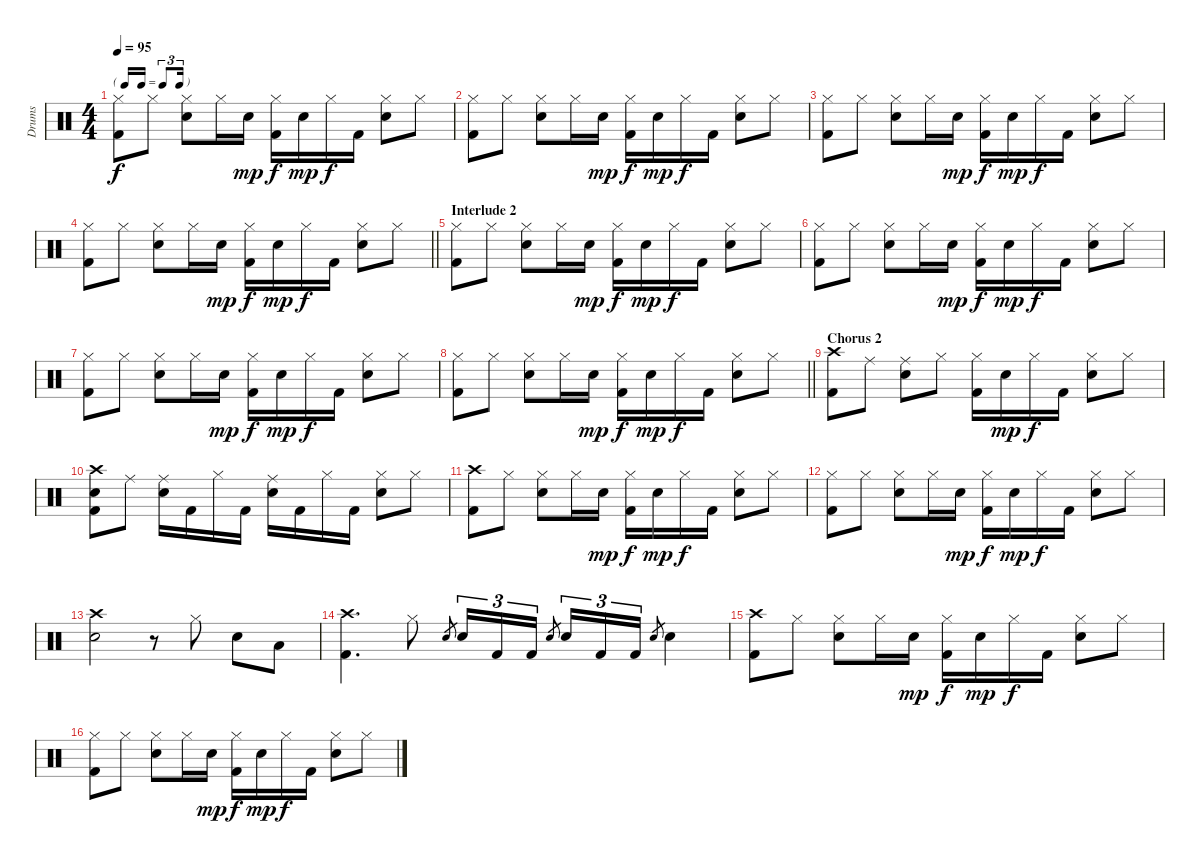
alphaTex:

\track ("Drums" "Drums") {instrument percussion}
\staff {score}
\articulation defaults
\ts (4 4)
\tf triplet16th
\tempo 95
\clef neutral
\ks c
("Hi-Hat (closed)" "Kick (hit) 2").8{dy f} "Hi-Hat (closed)".8 ("Hi-Hat (closed)" "Snare (hit) 2").8 "Hi-Hat (closed)".16 "Snare (hit) 2".16{dy mp} ("Hi-Hat (closed)" "Kick (hit) 2").16{dy f} "Snare (hit) 2".16{dy mp} "Hi-Hat (closed)".16{dy f} "Kick (hit) 2".16 ("Hi-Hat (closed)" "Snare (hit) 2").8 "Hi-Hat (closed)".8 |
("Hi-Hat (closed)" "Kick (hit) 2").8 "Hi-Hat (closed)".8 ("Hi-Hat (closed)" "Snare (hit) 2").8 "Hi-Hat (closed)".16 "Snare (hit) 2".16{dy mp} ("Hi-Hat (closed)" "Kick (hit) 2").16{dy f} "Snare (hit) 2".16{dy mp} "Hi-Hat (closed)".16{dy f} "Kick (hit) 2".16 ("Hi-Hat (closed)" "Snare (hit) 2").8 "Hi-Hat (closed)".8 |
("Hi-Hat (closed)" "Kick (hit) 2").8 "Hi-Hat (closed)".8 ("Hi-Hat (closed)" "Snare (hit) 2").8 "Hi-Hat (closed)".16 "Snare (hit) 2".16{dy mp} ("Hi-Hat (closed)" "Kick (hit) 2").16{dy f} "Snare (hit) 2".16{dy mp} "Hi-Hat (closed)".16{dy f} "Kick (hit) 2".16 ("Hi-Hat (closed)" "Snare (hit) 2").8 "Hi-Hat (closed)".8 |
\barLineRight lightlight
("Hi-Hat (closed)" "Kick (hit) 2").8 "Hi-Hat (closed)".8 ("Hi-Hat (closed)" "Snare (hit) 2").8 "Hi-Hat (closed)".16 "Snare (hit) 2".16{dy mp} ("Hi-Hat (closed)" "Kick (hit) 2").16{dy f} "Snare (hit) 2".16{dy mp} "Hi-Hat (closed)".16{dy f} "Kick (hit) 2".16 ("Hi-Hat (closed)" "Snare (hit) 2").8 "Hi-Hat (closed)".8 |
\section ("" "Interlude 2")
("Hi-Hat (closed)" "Kick (hit) 2").8 "Hi-Hat (closed)".8 ("Hi-Hat (closed)" "Snare (hit) 2").8 "Hi-Hat (closed)".16 "Snare (hit) 2".16{dy mp} ("Hi-Hat (closed)" "Kick (hit) 2").16{dy f} "Snare (hit) 2".16{dy mp} "Hi-Hat (closed)".16{dy f} "Kick (hit) 2".16 ("Hi-Hat (closed)" "Snare (hit) 2").8 "Hi-Hat (closed)".8 |
("Hi-Hat (closed)" "Kick (hit) 2").8 "Hi-Hat (closed)".8 ("Hi-Hat (closed)" "Snare (hit) 2").8 "Hi-Hat (closed)".16 "Snare (hit) 2".16{dy mp} ("Hi-Hat (closed)" "Kick (hit) 2").16{dy f} "Snare (hit) 2".16{dy mp} "Hi-Hat (closed)".16{dy f} "Kick (hit) 2".16 ("Hi-Hat (closed)" "Snare (hit) 2").8 "Hi-Hat (closed)".8 |
("Hi-Hat (closed)" "Kick (hit) 2").8 "Hi-Hat (closed)".8 ("Hi-Hat (closed)" "Snare (hit) 2").8 "Hi-Hat (closed)".16 "Snare (hit) 2".16{dy mp} ("Hi-Hat (closed)" "Kick (hit) 2").16{dy f} "Snare (hit) 2".16{dy mp} "Hi-Hat (closed)".16{dy f} "Kick (hit) 2".16 ("Hi-Hat (closed)" "Snare (hit) 2").8 "Hi-Hat (closed)".8 |
\barLineRight lightlight
("Hi-Hat (closed)" "Kick (hit) 2").8 "Hi-Hat (closed)".8 ("Hi-Hat (closed)" "Snare (hit) 2").8 "Hi-Hat (closed)".16 "Snare (hit) 2".16{dy mp} ("Hi-Hat (closed)" "Kick (hit) 2").16{dy f} "Snare (hit) 2".16{dy mp} "Hi-Hat (closed)".16{dy f} "Kick (hit) 2".16 ("Hi-Hat (closed)" "Snare (hit) 2").8 "Hi-Hat (closed)".8 |
\section ("" "Chorus 2")
("Crash high (hit)" "Kick (hit) 2").8 "Ride (middle)".8 ("Ride (middle)" "Snare (hit) 2").8 "Hi-Hat (closed)".8 ("Hi-Hat (closed)" "Kick (hit) 2").16 "Snare (hit) 2".16{dy mp} "Hi-Hat (closed)".16{dy f} "Kick (hit) 2".16 ("Hi-Hat (closed)" "Snare (hit) 2").8 "Hi-Hat (closed)".8 |
("Crash high (hit)" "Snare (hit) 2" "Kick (hit) 2").8 "Ride (middle)".8 ("Ride (middle)" "Snare (hit) 2").16 "Kick (hit) 2".16 "Hi-Hat (closed)".16 "Kick (hit) 2".16 ("Ride (middle)" "Snare (hit) 2").16 "Kick (hit) 2".16 "Hi-Hat (closed)".16 "Kick (hit) 2".16 ("Hi-Hat (closed)" "Snare (hit) 2").8 "Hi-Hat (closed)".8 |
("Crash high (hit)" "Kick (hit) 2").8 "Hi-Hat (closed)".8 ("Hi-Hat (closed)" "Snare (hit) 2").8 "Hi-Hat (closed)".16 "Snare (hit) 2".16{dy mp} ("Hi-Hat (closed)" "Kick (hit) 2").16{dy f} "Snare (hit) 2".16{dy mp} "Hi-Hat (closed)".16{dy f} "Kick (hit) 2".16 ("Hi-Hat (closed)" "Snare (hit) 2").8 "Hi-Hat (closed)".8 |
("Hi-Hat (closed)" "Kick (hit) 2").8 "Hi-Hat (closed)".8 ("Hi-Hat (closed)" "Snare (hit) 2").8 "Hi-Hat (closed)".16 "Snare (hit) 2".16{dy mp} ("Hi-Hat (closed)" "Kick (hit) 2").16{dy f} "Snare (hit) 2".16{dy mp} "Hi-Hat (closed)".16{dy f} "Kick (hit) 2".16 ("Hi-Hat (closed)" "Snare (hit) 2").8 "Hi-Hat (closed)".8 |
("Crash high (hit)" "Snare (hit) 2").2 r.8 "Hi-Hat (closed)".8 "Snare (hit) 2".8 "Low Tom (hit)".8 |
("Crash high (hit)" "Kick (hit) 2").4{d} "Hi-Hat (closed)".8 "Snare (hit) 2".8{gr} "Snare (hit) 2".16{tu (3 2)} "Kick (hit) 2".16{tu (3 2)} "Kick (hit) 2".16{tu (3 2)} "Snare (hit) 2".8{gr beam splitsecondary} "Snare (hit) 2".16{tu (3 2)} "Kick (hit) 2".16{tu (3 2)} "Kick (hit) 2".16{tu (3 2)} "Snare (hit) 2".8{gr} "Snare (hit) 2".4 |
("Crash high (hit)" "Kick (hit) 2").8 "Hi-Hat (closed)".8 ("Hi-Hat (closed)" "Snare (hit) 2").8 "Hi-Hat (closed)".16 "Snare (hit) 2".16{dy mp} ("Hi-Hat (closed)" "Kick (hit) 2").16{dy f} "Snare (hit) 2".16{dy mp} "Hi-Hat (closed)".16{dy f} "Kick (hit) 2".16 ("Hi-Hat (closed)" "Snare (hit) 2").8 "Hi-Hat (closed)".8 |
("Hi-Hat (closed)" "Kick (hit) 2").8 "Hi-Hat (closed)".8 ("Hi-Hat (closed)" "Snare (hit) 2").8 "Hi-Hat (closed)".16 "Snare (hit) 2".16{dy mp} ("Hi-Hat (closed)" "Kick (hit) 2").16{dy f} "Snare (hit) 2".16{dy mp} "Hi-Hat (closed)".16{dy f} "Kick (hit) 2".16 ("Hi-Hat (closed)" "Snare (hit) 2").8 "Hi-Hat (closed)".8
